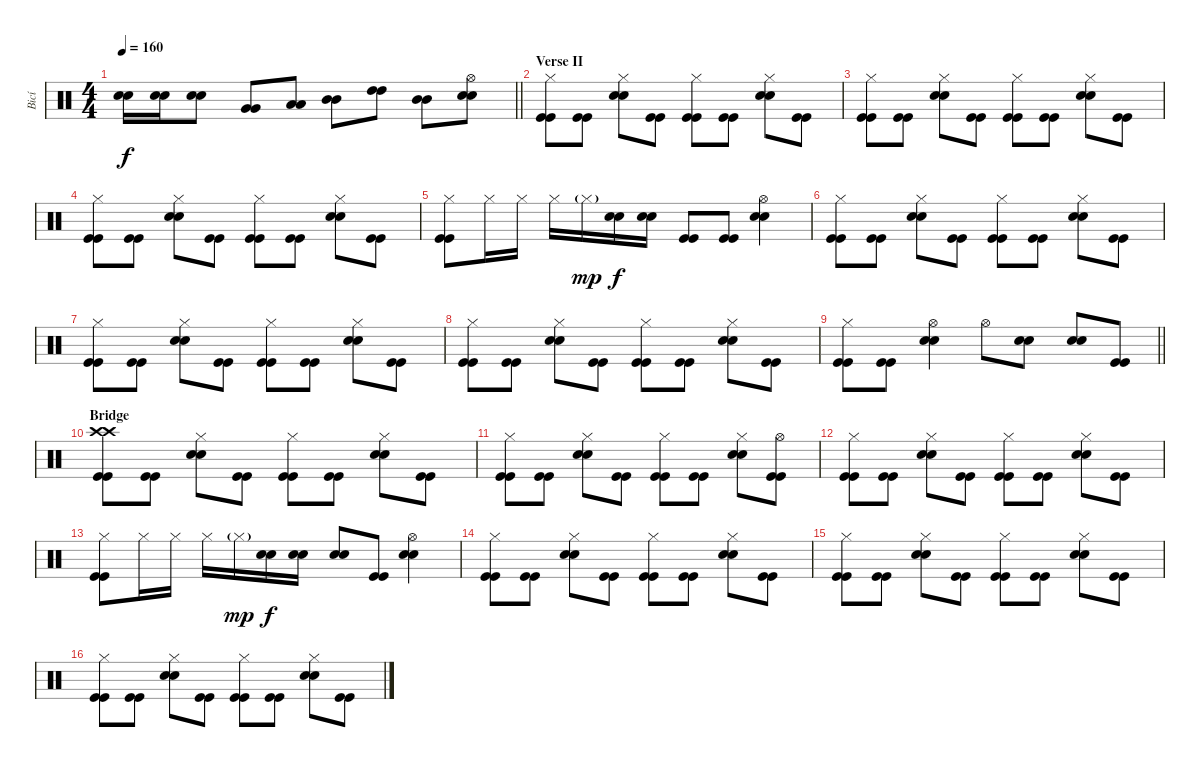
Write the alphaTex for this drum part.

\track ("Bicí" "Bicí") {instrument percussion}
\staff {score}
\articulation defaults
\ts (4 4)
\tempo 160
\clef neutral
\barLineRight lightlight
\ks c
("Electric Snare (hit)" "Electric Snare (hit)").16{dy f} ("Electric Snare (hit)" "Electric Snare (hit)").16 ("Electric Snare (hit)" "Electric Snare (hit)").8 ("Very Low Tom (hit)" "Very Low Tom (hit)").8 ("Low Tom (hit)" "Low Tom (hit)").8 ("Mid Tom (hit)" "Mid Tom (hit)").8 ("High Tom (hit)" "High Tom (hit)").8 ("Mid Tom (hit)" "Mid Tom (hit)").8 ("Hi-Hat (open)" "Electric Snare (hit)" "Electric Snare (hit)").8 |
\section ("" "Verse II")
("Hi-Hat (closed)" "Kick (hit)" "Kick (hit)").8 ("Kick (hit)" "Kick (hit)").8 ("Hi-Hat (closed)" "Electric Snare (hit)" "Electric Snare (hit)").8 ("Kick (hit)" "Kick (hit)").8 ("Hi-Hat (closed)" "Kick (hit)" "Kick (hit)").8 ("Kick (hit)" "Kick (hit)").8 ("Hi-Hat (closed)" "Electric Snare (hit)" "Electric Snare (hit)").8 ("Kick (hit)" "Kick (hit)").8 |
("Hi-Hat (closed)" "Kick (hit)" "Kick (hit)").8 ("Kick (hit)" "Kick (hit)").8 ("Hi-Hat (closed)" "Electric Snare (hit)" "Electric Snare (hit)").8 ("Kick (hit)" "Kick (hit)").8 ("Hi-Hat (closed)" "Kick (hit)" "Kick (hit)").8 ("Kick (hit)" "Kick (hit)").8 ("Hi-Hat (closed)" "Electric Snare (hit)" "Electric Snare (hit)").8 ("Kick (hit)" "Kick (hit)").8 |
("Hi-Hat (closed)" "Kick (hit)" "Kick (hit)").8 ("Kick (hit)" "Kick (hit)").8 ("Hi-Hat (closed)" "Electric Snare (hit)" "Electric Snare (hit)").8 ("Kick (hit)" "Kick (hit)").8 ("Hi-Hat (closed)" "Kick (hit)" "Kick (hit)").8 ("Kick (hit)" "Kick (hit)").8 ("Hi-Hat (closed)" "Electric Snare (hit)" "Electric Snare (hit)").8 ("Kick (hit)" "Kick (hit)").8 |
("Hi-Hat (closed)" "Kick (hit)" "Kick (hit)").8 "Hi-Hat (closed)".16 "Hi-Hat (closed)".16 "Hi-Hat (closed)".16 "Hi-Hat (closed)"{g}.16{dy mp} ("Electric Snare (hit)" "Electric Snare (hit)").16{dy f} ("Electric Snare (hit)" "Electric Snare (hit)").16 ("Kick (hit)" "Kick (hit)").8 ("Kick (hit)" "Kick (hit)").8 ("Hi-Hat (open)" "Electric Snare (hit)" "Electric Snare (hit)").4 |
("Hi-Hat (closed)" "Kick (hit)" "Kick (hit)").8 ("Kick (hit)" "Kick (hit)").8 ("Hi-Hat (closed)" "Electric Snare (hit)" "Electric Snare (hit)").8 ("Kick (hit)" "Kick (hit)").8 ("Hi-Hat (closed)" "Kick (hit)" "Kick (hit)").8 ("Kick (hit)" "Kick (hit)").8 ("Hi-Hat (closed)" "Electric Snare (hit)" "Electric Snare (hit)").8 ("Kick (hit)" "Kick (hit)").8 |
("Hi-Hat (closed)" "Kick (hit)" "Kick (hit)").8 ("Kick (hit)" "Kick (hit)").8 ("Hi-Hat (closed)" "Electric Snare (hit)" "Electric Snare (hit)").8 ("Kick (hit)" "Kick (hit)").8 ("Hi-Hat (closed)" "Kick (hit)" "Kick (hit)").8 ("Kick (hit)" "Kick (hit)").8 ("Hi-Hat (closed)" "Electric Snare (hit)" "Electric Snare (hit)").8 ("Kick (hit)" "Kick (hit)").8 |
("Hi-Hat (closed)" "Kick (hit)" "Kick (hit)").8 ("Kick (hit)" "Kick (hit)").8 ("Hi-Hat (closed)" "Electric Snare (hit)" "Electric Snare (hit)").8 ("Kick (hit)" "Kick (hit)").8 ("Hi-Hat (closed)" "Kick (hit)" "Kick (hit)").8 ("Kick (hit)" "Kick (hit)").8 ("Hi-Hat (closed)" "Electric Snare (hit)" "Electric Snare (hit)").8 ("Kick (hit)" "Kick (hit)").8 |
\barLineRight lightlight
("Hi-Hat (closed)" "Kick (hit)" "Kick (hit)").8 ("Kick (hit)" "Kick (hit)").8 ("Hi-Hat (open)" "Electric Snare (hit)" "Electric Snare (hit)").4 "Hi-Hat (open)".8 ("Electric Snare (hit)" "Electric Snare (hit)").8 ("Electric Snare (hit)" "Electric Snare (hit)").8 ("Kick (hit)" "Kick (hit)").8 |
\section ("" "Bridge")
("Crash high (hit)" "Crash high (hit)" "Kick (hit)" "Kick (hit)").8 ("Kick (hit)" "Kick (hit)").8 ("Hi-Hat (closed)" "Electric Snare (hit)" "Electric Snare (hit)").8 ("Kick (hit)" "Kick (hit)").8 ("Hi-Hat (closed)" "Kick (hit)" "Kick (hit)").8 ("Kick (hit)" "Kick (hit)").8 ("Hi-Hat (closed)" "Electric Snare (hit)" "Electric Snare (hit)").8 ("Kick (hit)" "Kick (hit)").8 |
("Hi-Hat (closed)" "Kick (hit)" "Kick (hit)").8 ("Kick (hit)" "Kick (hit)").8 ("Hi-Hat (closed)" "Electric Snare (hit)" "Electric Snare (hit)").8 ("Kick (hit)" "Kick (hit)").8 ("Hi-Hat (closed)" "Kick (hit)" "Kick (hit)").8 ("Kick (hit)" "Kick (hit)").8 ("Hi-Hat (closed)" "Electric Snare (hit)" "Electric Snare (hit)").8 ("Hi-Hat (open)" "Kick (hit)" "Kick (hit)").8 |
("Hi-Hat (closed)" "Kick (hit)" "Kick (hit)").8 ("Kick (hit)" "Kick (hit)").8 ("Hi-Hat (closed)" "Electric Snare (hit)" "Electric Snare (hit)").8 ("Kick (hit)" "Kick (hit)").8 ("Hi-Hat (closed)" "Kick (hit)" "Kick (hit)").8 ("Kick (hit)" "Kick (hit)").8 ("Hi-Hat (closed)" "Electric Snare (hit)" "Electric Snare (hit)").8 ("Kick (hit)" "Kick (hit)").8 |
("Hi-Hat (closed)" "Kick (hit)" "Kick (hit)").8 "Hi-Hat (closed)".16 "Hi-Hat (closed)".16 "Hi-Hat (closed)".16 "Hi-Hat (closed)"{g}.16{dy mp} ("Electric Snare (hit)" "Electric Snare (hit)").16{dy f} ("Electric Snare (hit)" "Electric Snare (hit)").16 ("Electric Snare (hit)" "Electric Snare (hit)").8 ("Kick (hit)" "Kick (hit)").8 ("Hi-Hat (open)" "Electric Snare (hit)" "Electric Snare (hit)").4 |
("Hi-Hat (closed)" "Kick (hit)" "Kick (hit)").8 ("Kick (hit)" "Kick (hit)").8 ("Hi-Hat (closed)" "Electric Snare (hit)" "Electric Snare (hit)").8 ("Kick (hit)" "Kick (hit)").8 ("Hi-Hat (closed)" "Kick (hit)" "Kick (hit)").8 ("Kick (hit)" "Kick (hit)").8 ("Hi-Hat (closed)" "Electric Snare (hit)" "Electric Snare (hit)").8 ("Kick (hit)" "Kick (hit)").8 |
("Hi-Hat (closed)" "Kick (hit)" "Kick (hit)").8 ("Kick (hit)" "Kick (hit)").8 ("Hi-Hat (closed)" "Electric Snare (hit)" "Electric Snare (hit)").8 ("Kick (hit)" "Kick (hit)").8 ("Hi-Hat (closed)" "Kick (hit)" "Kick (hit)").8 ("Kick (hit)" "Kick (hit)").8 ("Hi-Hat (closed)" "Electric Snare (hit)" "Electric Snare (hit)").8 ("Kick (hit)" "Kick (hit)").8 |
("Hi-Hat (closed)" "Kick (hit)" "Kick (hit)").8 ("Kick (hit)" "Kick (hit)").8 ("Hi-Hat (closed)" "Electric Snare (hit)" "Electric Snare (hit)").8 ("Kick (hit)" "Kick (hit)").8 ("Hi-Hat (closed)" "Kick (hit)" "Kick (hit)").8 ("Kick (hit)" "Kick (hit)").8 ("Hi-Hat (closed)" "Electric Snare (hit)" "Electric Snare (hit)").8 ("Kick (hit)" "Kick (hit)").8
